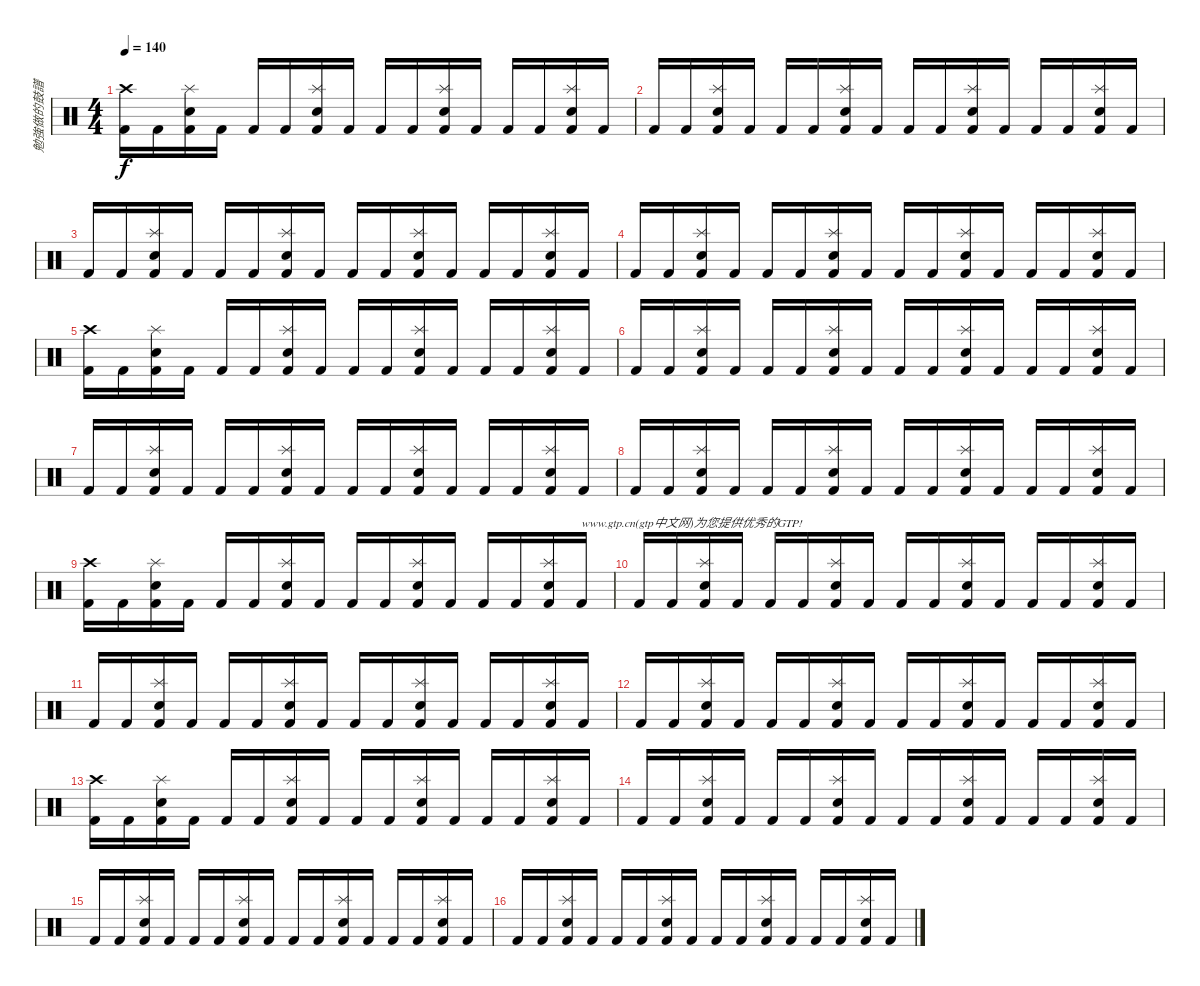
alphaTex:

\track ("勉強做的鼓譜" "勉強做的鼓譜") {instrument percussion}
\staff {score}
\articulation defaults
\ts (4 4)
\tempo 140
\clef neutral
\ks c
("Crash high (hit)" "Kick (hit) 2").16{dy f} "Kick (hit) 2".16 ("Splash (hit)" "Electric Snare (hit)" "Kick (hit) 2").16 "Kick (hit) 2".16 "Kick (hit) 2".16 "Kick (hit) 2".16 ("Splash (hit)" "Electric Snare (hit)" "Kick (hit) 2").16 "Kick (hit) 2".16 "Kick (hit) 2".16 "Kick (hit) 2".16 ("Splash (hit)" "Electric Snare (hit)" "Kick (hit) 2").16 "Kick (hit) 2".16 "Kick (hit) 2".16 "Kick (hit) 2".16 ("Splash (hit)" "Electric Snare (hit)" "Kick (hit) 2").16 "Kick (hit) 2".16 |
"Kick (hit) 2".16 "Kick (hit) 2".16 ("Splash (hit)" "Electric Snare (hit)" "Kick (hit) 2").16 "Kick (hit) 2".16 "Kick (hit) 2".16 "Kick (hit) 2".16 ("Splash (hit)" "Electric Snare (hit)" "Kick (hit) 2").16 "Kick (hit) 2".16 "Kick (hit) 2".16 "Kick (hit) 2".16 ("Splash (hit)" "Electric Snare (hit)" "Kick (hit) 2").16 "Kick (hit) 2".16 "Kick (hit) 2".16 "Kick (hit) 2".16 ("Splash (hit)" "Electric Snare (hit)" "Kick (hit) 2").16 "Kick (hit) 2".16 |
"Kick (hit) 2".16 "Kick (hit) 2".16 ("Splash (hit)" "Electric Snare (hit)" "Kick (hit) 2").16 "Kick (hit) 2".16 "Kick (hit) 2".16 "Kick (hit) 2".16 ("Splash (hit)" "Electric Snare (hit)" "Kick (hit) 2").16 "Kick (hit) 2".16 "Kick (hit) 2".16 "Kick (hit) 2".16 ("Splash (hit)" "Electric Snare (hit)" "Kick (hit) 2").16 "Kick (hit) 2".16 "Kick (hit) 2".16 "Kick (hit) 2".16 ("Splash (hit)" "Electric Snare (hit)" "Kick (hit) 2").16 "Kick (hit) 2".16 |
"Kick (hit) 2".16 "Kick (hit) 2".16 ("Splash (hit)" "Electric Snare (hit)" "Kick (hit) 2").16 "Kick (hit) 2".16 "Kick (hit) 2".16 "Kick (hit) 2".16 ("Splash (hit)" "Electric Snare (hit)" "Kick (hit) 2").16 "Kick (hit) 2".16 "Kick (hit) 2".16 "Kick (hit) 2".16 ("Splash (hit)" "Electric Snare (hit)" "Kick (hit) 2").16 "Kick (hit) 2".16 "Kick (hit) 2".16 "Kick (hit) 2".16 ("Splash (hit)" "Electric Snare (hit)" "Kick (hit) 2").16 "Kick (hit) 2".16 |
("Crash high (hit)" "Kick (hit) 2").16 "Kick (hit) 2".16 ("Splash (hit)" "Electric Snare (hit)" "Kick (hit) 2").16 "Kick (hit) 2".16 "Kick (hit) 2".16 "Kick (hit) 2".16 ("Splash (hit)" "Electric Snare (hit)" "Kick (hit) 2").16 "Kick (hit) 2".16 "Kick (hit) 2".16 "Kick (hit) 2".16 ("Splash (hit)" "Electric Snare (hit)" "Kick (hit) 2").16 "Kick (hit) 2".16 "Kick (hit) 2".16 "Kick (hit) 2".16 ("Splash (hit)" "Electric Snare (hit)" "Kick (hit) 2").16 "Kick (hit) 2".16 |
"Kick (hit) 2".16 "Kick (hit) 2".16 ("Splash (hit)" "Electric Snare (hit)" "Kick (hit) 2").16 "Kick (hit) 2".16 "Kick (hit) 2".16 "Kick (hit) 2".16 ("Splash (hit)" "Electric Snare (hit)" "Kick (hit) 2").16 "Kick (hit) 2".16 "Kick (hit) 2".16 "Kick (hit) 2".16 ("Splash (hit)" "Electric Snare (hit)" "Kick (hit) 2").16 "Kick (hit) 2".16 "Kick (hit) 2".16 "Kick (hit) 2".16 ("Splash (hit)" "Electric Snare (hit)" "Kick (hit) 2").16 "Kick (hit) 2".16 |
"Kick (hit) 2".16 "Kick (hit) 2".16 ("Splash (hit)" "Electric Snare (hit)" "Kick (hit) 2").16 "Kick (hit) 2".16 "Kick (hit) 2".16 "Kick (hit) 2".16 ("Splash (hit)" "Electric Snare (hit)" "Kick (hit) 2").16 "Kick (hit) 2".16 "Kick (hit) 2".16 "Kick (hit) 2".16 ("Splash (hit)" "Electric Snare (hit)" "Kick (hit) 2").16 "Kick (hit) 2".16 "Kick (hit) 2".16 "Kick (hit) 2".16 ("Splash (hit)" "Electric Snare (hit)" "Kick (hit) 2").16 "Kick (hit) 2".16 |
"Kick (hit) 2".16 "Kick (hit) 2".16 ("Splash (hit)" "Electric Snare (hit)" "Kick (hit) 2").16 "Kick (hit) 2".16 "Kick (hit) 2".16 "Kick (hit) 2".16 ("Splash (hit)" "Electric Snare (hit)" "Kick (hit) 2").16 "Kick (hit) 2".16 "Kick (hit) 2".16 "Kick (hit) 2".16 ("Splash (hit)" "Electric Snare (hit)" "Kick (hit) 2").16 "Kick (hit) 2".16 "Kick (hit) 2".16 "Kick (hit) 2".16 ("Splash (hit)" "Electric Snare (hit)" "Kick (hit) 2").16 "Kick (hit) 2".16 |
("Crash high (hit)" "Kick (hit) 2").16 "Kick (hit) 2".16 ("Splash (hit)" "Electric Snare (hit)" "Kick (hit) 2").16 "Kick (hit) 2".16 "Kick (hit) 2".16 "Kick (hit) 2".16 ("Splash (hit)" "Electric Snare (hit)" "Kick (hit) 2").16 "Kick (hit) 2".16 "Kick (hit) 2".16 "Kick (hit) 2".16 ("Splash (hit)" "Electric Snare (hit)" "Kick (hit) 2").16 "Kick (hit) 2".16 "Kick (hit) 2".16 "Kick (hit) 2".16 ("Splash (hit)" "Electric Snare (hit)" "Kick (hit) 2").16 "Kick (hit) 2".16{txt "www.gtp.cn(gtp中文网)为您提供优秀的GTP!"} |
"Kick (hit) 2".16 "Kick (hit) 2".16 ("Splash (hit)" "Electric Snare (hit)" "Kick (hit) 2").16 "Kick (hit) 2".16 "Kick (hit) 2".16 "Kick (hit) 2".16 ("Splash (hit)" "Electric Snare (hit)" "Kick (hit) 2").16 "Kick (hit) 2".16 "Kick (hit) 2".16 "Kick (hit) 2".16 ("Splash (hit)" "Electric Snare (hit)" "Kick (hit) 2").16 "Kick (hit) 2".16 "Kick (hit) 2".16 "Kick (hit) 2".16 ("Splash (hit)" "Electric Snare (hit)" "Kick (hit) 2").16 "Kick (hit) 2".16 |
"Kick (hit) 2".16 "Kick (hit) 2".16 ("Splash (hit)" "Electric Snare (hit)" "Kick (hit) 2").16 "Kick (hit) 2".16 "Kick (hit) 2".16 "Kick (hit) 2".16 ("Splash (hit)" "Electric Snare (hit)" "Kick (hit) 2").16 "Kick (hit) 2".16 "Kick (hit) 2".16 "Kick (hit) 2".16 ("Splash (hit)" "Electric Snare (hit)" "Kick (hit) 2").16 "Kick (hit) 2".16 "Kick (hit) 2".16 "Kick (hit) 2".16 ("Splash (hit)" "Electric Snare (hit)" "Kick (hit) 2").16 "Kick (hit) 2".16 |
"Kick (hit) 2".16 "Kick (hit) 2".16 ("Splash (hit)" "Electric Snare (hit)" "Kick (hit) 2").16 "Kick (hit) 2".16 "Kick (hit) 2".16 "Kick (hit) 2".16 ("Splash (hit)" "Electric Snare (hit)" "Kick (hit) 2").16 "Kick (hit) 2".16 "Kick (hit) 2".16 "Kick (hit) 2".16 ("Splash (hit)" "Electric Snare (hit)" "Kick (hit) 2").16 "Kick (hit) 2".16 "Kick (hit) 2".16 "Kick (hit) 2".16 ("Splash (hit)" "Electric Snare (hit)" "Kick (hit) 2").16 "Kick (hit) 2".16 |
("Crash high (hit)" "Kick (hit) 2").16 "Kick (hit) 2".16 ("Splash (hit)" "Electric Snare (hit)" "Kick (hit) 2").16 "Kick (hit) 2".16 "Kick (hit) 2".16 "Kick (hit) 2".16 ("Splash (hit)" "Electric Snare (hit)" "Kick (hit) 2").16 "Kick (hit) 2".16 "Kick (hit) 2".16 "Kick (hit) 2".16 ("Splash (hit)" "Electric Snare (hit)" "Kick (hit) 2").16 "Kick (hit) 2".16 "Kick (hit) 2".16 "Kick (hit) 2".16 ("Splash (hit)" "Electric Snare (hit)" "Kick (hit) 2").16 "Kick (hit) 2".16 |
"Kick (hit) 2".16 "Kick (hit) 2".16 ("Splash (hit)" "Electric Snare (hit)" "Kick (hit) 2").16 "Kick (hit) 2".16 "Kick (hit) 2".16 "Kick (hit) 2".16 ("Splash (hit)" "Electric Snare (hit)" "Kick (hit) 2").16 "Kick (hit) 2".16 "Kick (hit) 2".16 "Kick (hit) 2".16 ("Splash (hit)" "Electric Snare (hit)" "Kick (hit) 2").16 "Kick (hit) 2".16 "Kick (hit) 2".16 "Kick (hit) 2".16 ("Splash (hit)" "Electric Snare (hit)" "Kick (hit) 2").16 "Kick (hit) 2".16 |
"Kick (hit) 2".16 "Kick (hit) 2".16 ("Splash (hit)" "Electric Snare (hit)" "Kick (hit) 2").16 "Kick (hit) 2".16 "Kick (hit) 2".16 "Kick (hit) 2".16 ("Splash (hit)" "Electric Snare (hit)" "Kick (hit) 2").16 "Kick (hit) 2".16 "Kick (hit) 2".16 "Kick (hit) 2".16 ("Splash (hit)" "Electric Snare (hit)" "Kick (hit) 2").16 "Kick (hit) 2".16 "Kick (hit) 2".16 "Kick (hit) 2".16 ("Splash (hit)" "Electric Snare (hit)" "Kick (hit) 2").16 "Kick (hit) 2".16 |
"Kick (hit) 2".16 "Kick (hit) 2".16 ("Splash (hit)" "Electric Snare (hit)" "Kick (hit) 2").16 "Kick (hit) 2".16 "Kick (hit) 2".16 "Kick (hit) 2".16 ("Splash (hit)" "Electric Snare (hit)" "Kick (hit) 2").16 "Kick (hit) 2".16 "Kick (hit) 2".16 "Kick (hit) 2".16 ("Splash (hit)" "Electric Snare (hit)" "Kick (hit) 2").16 "Kick (hit) 2".16 "Kick (hit) 2".16 "Kick (hit) 2".16 ("Splash (hit)" "Electric Snare (hit)" "Kick (hit) 2").16 "Kick (hit) 2".16
